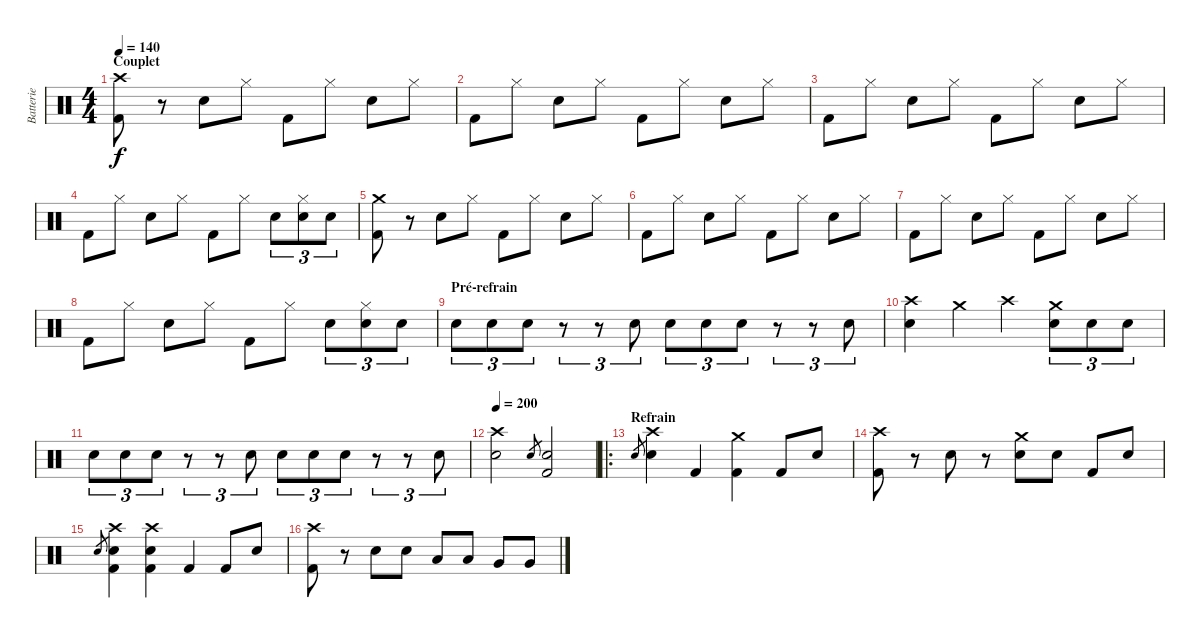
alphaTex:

\track ("Batterie" "Batterie") {instrument percussion}
\staff {score}
\articulation defaults
\ts (4 4)
\section ("" "Couplet")
\tempo 140
\clef neutral
\ks c
("Crash high (hit)" "Kick (hit) 2").8{dy f} r.8 "Electric Snare (hit)".8 "Hi-Hat (closed)".8 "Kick (hit) 2".8 "Hi-Hat (closed)".8 "Electric Snare (hit)".8 "Hi-Hat (closed)".8 |
"Kick (hit) 2".8 "Hi-Hat (closed)".8 "Electric Snare (hit)".8 "Hi-Hat (closed)".8 "Kick (hit) 2".8 "Hi-Hat (closed)".8 "Electric Snare (hit)".8 "Hi-Hat (closed)".8 |
"Kick (hit) 2".8 "Hi-Hat (closed)".8 "Electric Snare (hit)".8 "Hi-Hat (closed)".8 "Kick (hit) 2".8 "Hi-Hat (closed)".8 "Electric Snare (hit)".8 "Hi-Hat (closed)".8 |
"Kick (hit) 2".8 "Hi-Hat (closed)".8 "Electric Snare (hit)".8 "Hi-Hat (closed)".8 "Kick (hit) 2".8 "Hi-Hat (closed)".8 "Electric Snare (hit)".8{tu (3 2)} ("Hi-Hat (closed)" "Electric Snare (hit)").8{tu (3 2)} "Electric Snare (hit)".8{tu (3 2)} |
("Crash medium (hit)" "Kick (hit) 2").8 r.8 "Electric Snare (hit)".8 "Hi-Hat (closed)".8 "Kick (hit) 2".8 "Hi-Hat (closed)".8 "Electric Snare (hit)".8 "Hi-Hat (closed)".8 |
"Kick (hit) 2".8 "Hi-Hat (closed)".8 "Electric Snare (hit)".8 "Hi-Hat (closed)".8 "Kick (hit) 2".8 "Hi-Hat (closed)".8 "Electric Snare (hit)".8 "Hi-Hat (closed)".8 |
"Kick (hit) 2".8 "Hi-Hat (closed)".8 "Electric Snare (hit)".8 "Hi-Hat (closed)".8 "Kick (hit) 2".8 "Hi-Hat (closed)".8 "Electric Snare (hit)".8 "Hi-Hat (closed)".8 |
"Kick (hit) 2".8 "Hi-Hat (closed)".8 "Electric Snare (hit)".8 "Hi-Hat (closed)".8 "Kick (hit) 2".8 "Hi-Hat (closed)".8 "Electric Snare (hit)".8{tu (3 2)} ("Hi-Hat (closed)" "Electric Snare (hit)").8{tu (3 2)} "Electric Snare (hit)".8{tu (3 2)} |
\section ("" "Pré-refrain")
"Electric Snare (hit)".8{tu (3 2)} "Electric Snare (hit)".8{tu (3 2)} "Electric Snare (hit)".8{tu (3 2)} r.8{tu (3 2)} r.8{tu (3 2)} "Electric Snare (hit)".8{tu (3 2)} "Electric Snare (hit)".8{tu (3 2)} "Electric Snare (hit)".8{tu (3 2)} "Electric Snare (hit)".8{tu (3 2)} r.8{tu (3 2)} r.8{tu (3 2)} "Electric Snare (hit)".8{tu (3 2)} |
("Crash high (hit)" "Electric Snare (hit)").4 "Crash medium (hit)".4 "Crash high (hit)".4 ("Crash medium (hit)" "Electric Snare (hit)").8{tu (3 2)} "Electric Snare (hit)".8{tu (3 2)} "Electric Snare (hit)".8{tu (3 2)} |
"Electric Snare (hit)".8{tu (3 2)} "Electric Snare (hit)".8{tu (3 2)} "Electric Snare (hit)".8{tu (3 2)} r.8{tu (3 2)} r.8{tu (3 2)} "Electric Snare (hit)".8{tu (3 2)} "Electric Snare (hit)".8{tu (3 2)} "Electric Snare (hit)".8{tu (3 2)} "Electric Snare (hit)".8{tu (3 2)} r.8{tu (3 2)} r.8{tu (3 2)} "Electric Snare (hit)".8{tu (3 2)} |
\tempo 200
("Crash high (hit)" "Electric Snare (hit)").2 "Snare (hit) 2".8{gr} ("Snare (hit) 2" "Kick (hit) 2").2 |
\ro
\section ("" "Refrain")
"Snare (hit) 2".8{gr} ("Crash high (hit)" "Snare (hit) 2").4 "Kick (hit) 2".4 ("Crash medium (hit)" "Kick (hit) 2").4 "Kick (hit) 2".8 "Snare (hit) 2".8 |
("Crash high (hit)" "Kick (hit) 2").8 r.8 "Snare (hit) 2".8 r.8 ("Crash medium (hit)" "Snare (hit) 2").8 "Snare (hit) 2".8 "Kick (hit) 2".8 "Snare (hit) 2".8 |
"Snare (hit) 2".8{gr} ("Crash high (hit)" "Snare (hit) 2" "Kick (hit) 2").4 ("Crash high (hit)" "Snare (hit) 2" "Kick (hit) 2").4 "Kick (hit) 2".4 "Kick (hit) 2".8 "Snare (hit) 2".8 |
("Crash high (hit)" "Kick (hit) 2").8 r.8 "Snare (hit) 2".8 "Snare (hit) 2".8 "Low Tom (hit)".8 "Low Tom (hit)".8 "Very Low Tom (hit)".8 "Very Low Tom (hit)".8
